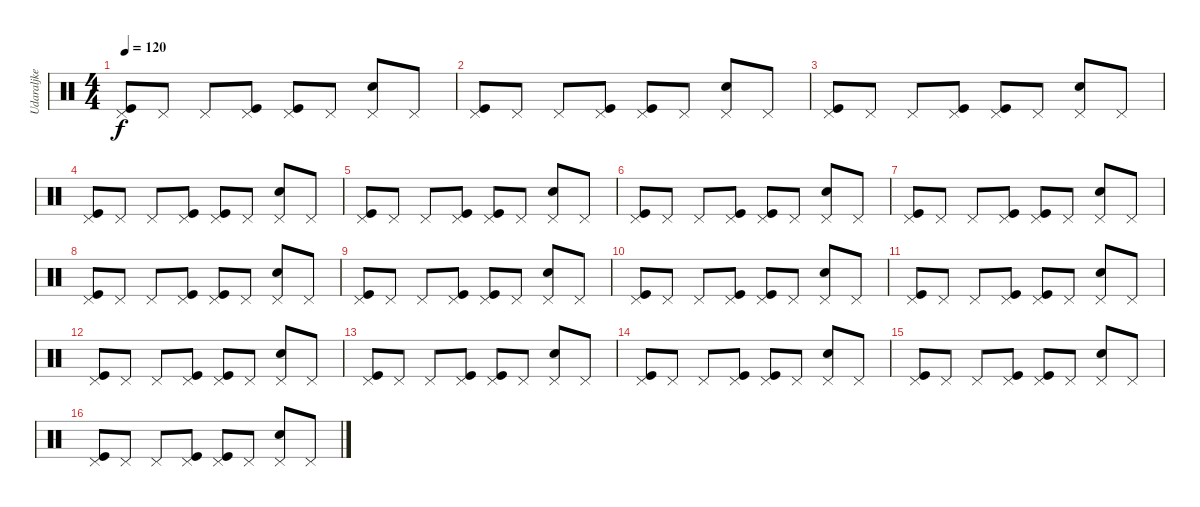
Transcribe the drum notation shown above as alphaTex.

\track ("Udaraljke" "Udaraljke") {instrument percussion}
\staff {score}
\articulation defaults
\ts (4 4)
\tempo 120
\clef neutral
\ks c
("Pedal Hi-Hat (hit)" "Kick (hit)").8{dy f} "Pedal Hi-Hat (hit)".8 "Pedal Hi-Hat (hit)".8 ("Pedal Hi-Hat (hit)" "Kick (hit)").8 ("Pedal Hi-Hat (hit)" "Kick (hit)").8 "Pedal Hi-Hat (hit)".8 ("Pedal Hi-Hat (hit)" "Snare (hit) 2").8 "Pedal Hi-Hat (hit)".8 |
("Pedal Hi-Hat (hit)" "Kick (hit)").8 "Pedal Hi-Hat (hit)".8 "Pedal Hi-Hat (hit)".8 ("Pedal Hi-Hat (hit)" "Kick (hit)").8 ("Pedal Hi-Hat (hit)" "Kick (hit)").8 "Pedal Hi-Hat (hit)".8 ("Pedal Hi-Hat (hit)" "Snare (hit) 2").8 "Pedal Hi-Hat (hit)".8 |
("Pedal Hi-Hat (hit)" "Kick (hit)").8 "Pedal Hi-Hat (hit)".8 "Pedal Hi-Hat (hit)".8 ("Pedal Hi-Hat (hit)" "Kick (hit)").8 ("Pedal Hi-Hat (hit)" "Kick (hit)").8 "Pedal Hi-Hat (hit)".8 ("Pedal Hi-Hat (hit)" "Snare (hit) 2").8 "Pedal Hi-Hat (hit)".8 |
("Pedal Hi-Hat (hit)" "Kick (hit)").8 "Pedal Hi-Hat (hit)".8 "Pedal Hi-Hat (hit)".8 ("Pedal Hi-Hat (hit)" "Kick (hit)").8 ("Pedal Hi-Hat (hit)" "Kick (hit)").8 "Pedal Hi-Hat (hit)".8 ("Pedal Hi-Hat (hit)" "Snare (hit) 2").8 "Pedal Hi-Hat (hit)".8 |
("Pedal Hi-Hat (hit)" "Kick (hit)").8 "Pedal Hi-Hat (hit)".8 "Pedal Hi-Hat (hit)".8 ("Pedal Hi-Hat (hit)" "Kick (hit)").8 ("Pedal Hi-Hat (hit)" "Kick (hit)").8 "Pedal Hi-Hat (hit)".8 ("Pedal Hi-Hat (hit)" "Snare (hit) 2").8 "Pedal Hi-Hat (hit)".8 |
("Pedal Hi-Hat (hit)" "Kick (hit)").8 "Pedal Hi-Hat (hit)".8 "Pedal Hi-Hat (hit)".8 ("Pedal Hi-Hat (hit)" "Kick (hit)").8 ("Pedal Hi-Hat (hit)" "Kick (hit)").8 "Pedal Hi-Hat (hit)".8 ("Pedal Hi-Hat (hit)" "Snare (hit) 2").8 "Pedal Hi-Hat (hit)".8 |
("Pedal Hi-Hat (hit)" "Kick (hit)").8 "Pedal Hi-Hat (hit)".8 "Pedal Hi-Hat (hit)".8 ("Pedal Hi-Hat (hit)" "Kick (hit)").8 ("Pedal Hi-Hat (hit)" "Kick (hit)").8 "Pedal Hi-Hat (hit)".8 ("Pedal Hi-Hat (hit)" "Snare (hit) 2").8 "Pedal Hi-Hat (hit)".8 |
("Pedal Hi-Hat (hit)" "Kick (hit)").8 "Pedal Hi-Hat (hit)".8 "Pedal Hi-Hat (hit)".8 ("Pedal Hi-Hat (hit)" "Kick (hit)").8 ("Pedal Hi-Hat (hit)" "Kick (hit)").8 "Pedal Hi-Hat (hit)".8 ("Pedal Hi-Hat (hit)" "Snare (hit) 2").8 "Pedal Hi-Hat (hit)".8 |
("Pedal Hi-Hat (hit)" "Kick (hit)").8 "Pedal Hi-Hat (hit)".8 "Pedal Hi-Hat (hit)".8 ("Pedal Hi-Hat (hit)" "Kick (hit)").8 ("Pedal Hi-Hat (hit)" "Kick (hit)").8 "Pedal Hi-Hat (hit)".8 ("Pedal Hi-Hat (hit)" "Snare (hit) 2").8 "Pedal Hi-Hat (hit)".8 |
("Pedal Hi-Hat (hit)" "Kick (hit)").8 "Pedal Hi-Hat (hit)".8 "Pedal Hi-Hat (hit)".8 ("Pedal Hi-Hat (hit)" "Kick (hit)").8 ("Pedal Hi-Hat (hit)" "Kick (hit)").8 "Pedal Hi-Hat (hit)".8 ("Pedal Hi-Hat (hit)" "Snare (hit) 2").8 "Pedal Hi-Hat (hit)".8 |
("Pedal Hi-Hat (hit)" "Kick (hit)").8 "Pedal Hi-Hat (hit)".8 "Pedal Hi-Hat (hit)".8 ("Pedal Hi-Hat (hit)" "Kick (hit)").8 ("Pedal Hi-Hat (hit)" "Kick (hit)").8 "Pedal Hi-Hat (hit)".8 ("Pedal Hi-Hat (hit)" "Snare (hit) 2").8 "Pedal Hi-Hat (hit)".8 |
("Pedal Hi-Hat (hit)" "Kick (hit)").8 "Pedal Hi-Hat (hit)".8 "Pedal Hi-Hat (hit)".8 ("Pedal Hi-Hat (hit)" "Kick (hit)").8 ("Pedal Hi-Hat (hit)" "Kick (hit)").8 "Pedal Hi-Hat (hit)".8 ("Pedal Hi-Hat (hit)" "Snare (hit) 2").8 "Pedal Hi-Hat (hit)".8 |
("Pedal Hi-Hat (hit)" "Kick (hit)").8 "Pedal Hi-Hat (hit)".8 "Pedal Hi-Hat (hit)".8 ("Pedal Hi-Hat (hit)" "Kick (hit)").8 ("Pedal Hi-Hat (hit)" "Kick (hit)").8 "Pedal Hi-Hat (hit)".8 ("Pedal Hi-Hat (hit)" "Snare (hit) 2").8 "Pedal Hi-Hat (hit)".8 |
("Pedal Hi-Hat (hit)" "Kick (hit)").8 "Pedal Hi-Hat (hit)".8 "Pedal Hi-Hat (hit)".8 ("Pedal Hi-Hat (hit)" "Kick (hit)").8 ("Pedal Hi-Hat (hit)" "Kick (hit)").8 "Pedal Hi-Hat (hit)".8 ("Pedal Hi-Hat (hit)" "Snare (hit) 2").8 "Pedal Hi-Hat (hit)".8 |
("Pedal Hi-Hat (hit)" "Kick (hit)").8 "Pedal Hi-Hat (hit)".8 "Pedal Hi-Hat (hit)".8 ("Pedal Hi-Hat (hit)" "Kick (hit)").8 ("Pedal Hi-Hat (hit)" "Kick (hit)").8 "Pedal Hi-Hat (hit)".8 ("Pedal Hi-Hat (hit)" "Snare (hit) 2").8 "Pedal Hi-Hat (hit)".8 |
("Pedal Hi-Hat (hit)" "Kick (hit)").8 "Pedal Hi-Hat (hit)".8 "Pedal Hi-Hat (hit)".8 ("Pedal Hi-Hat (hit)" "Kick (hit)").8 ("Pedal Hi-Hat (hit)" "Kick (hit)").8 "Pedal Hi-Hat (hit)".8 ("Pedal Hi-Hat (hit)" "Snare (hit) 2").8 "Pedal Hi-Hat (hit)".8
